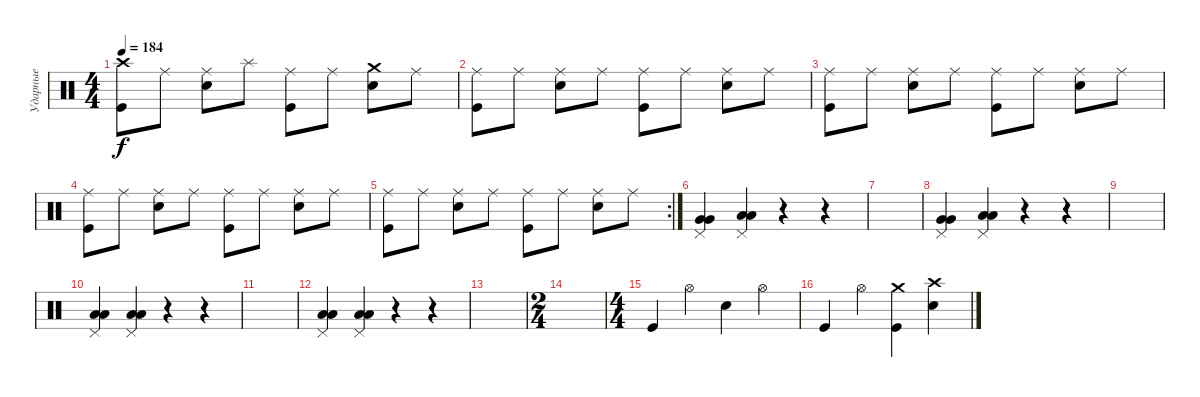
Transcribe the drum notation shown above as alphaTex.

\track ("Ударные" "Ударные") {instrument percussion}
\staff {score}
\articulation defaults
\ts (4 4)
\tempo 184
\clef neutral
\ks c
("Crash high (hit)" "Kick (hit)").8{dy f} "Ride (middle)".8 ("Ride (middle)" "Electric Snare (hit)").8 "Splash (hit)".8 ("Ride (middle)" "Kick (hit)").8 "Ride (middle)".8 ("Crash medium (hit)" "Electric Snare (hit)").8 "Ride (middle)".8 |
("Ride (middle)" "Kick (hit)").8 "Ride (middle)".8 ("Ride (middle)" "Electric Snare (hit)").8 "Ride (middle)".8 ("Ride (middle)" "Kick (hit)").8 "Ride (middle)".8 ("Ride (middle)" "Electric Snare (hit)").8 "Ride (middle)".8 |
("Ride (middle)" "Kick (hit)").8 "Ride (middle)".8 ("Ride (middle)" "Electric Snare (hit)").8 "Ride (middle)".8 ("Ride (middle)" "Kick (hit)").8 "Ride (middle)".8 ("Ride (middle)" "Electric Snare (hit)").8 "Ride (middle)".8 |
("Ride (middle)" "Kick (hit)").8 "Ride (middle)".8 ("Ride (middle)" "Electric Snare (hit)").8 "Ride (middle)".8 ("Ride (middle)" "Kick (hit)").8 "Ride (middle)".8 ("Ride (middle)" "Electric Snare (hit)").8 "Ride (middle)".8 |
\rc 2
("Ride (middle)" "Kick (hit)").8 "Ride (middle)".8 ("Ride (middle)" "Electric Snare (hit)").8 "Ride (middle)".8 ("Ride (middle)" "Kick (hit)").8 "Ride (middle)".8 ("Ride (middle)" "Electric Snare (hit)").8 "Ride (middle)".8 |
("Pedal Hi-Hat (hit)" "Very Low Tom (hit)" "Very Low Tom (hit)").4 ("Pedal Hi-Hat (hit)" "Low Tom (hit)" "Low Tom (hit)").4 r.4 r.4 |
|
("Pedal Hi-Hat (hit)" "Very Low Tom (hit)" "Very Low Tom (hit)").4 ("Pedal Hi-Hat (hit)" "Low Tom (hit)" "Low Tom (hit)").4 r.4 r.4 |
|
("Pedal Hi-Hat (hit)" "Low Tom (hit)" "Low Tom (hit)").4 ("Pedal Hi-Hat (hit)" "Low Tom (hit)" "Low Tom (hit)").4 r.4 r.4 |
|
("Pedal Hi-Hat (hit)" "Low Tom (hit)" "Low Tom (hit)").4 ("Pedal Hi-Hat (hit)" "Low Tom (hit)" "Low Tom (hit)").4 r.4 r.4 |
|
\ts (2 4)
|
\ts (4 4)
"Kick (hit)".4 "Hi-Hat (open)".4 "Electric Snare (hit)".4 "Hi-Hat (open)".4 |
"Kick (hit)".4 "Hi-Hat (open)".4 ("Crash medium (hit)" "Kick (hit)").4 ("Crash high (hit)" "Electric Snare (hit)").4
